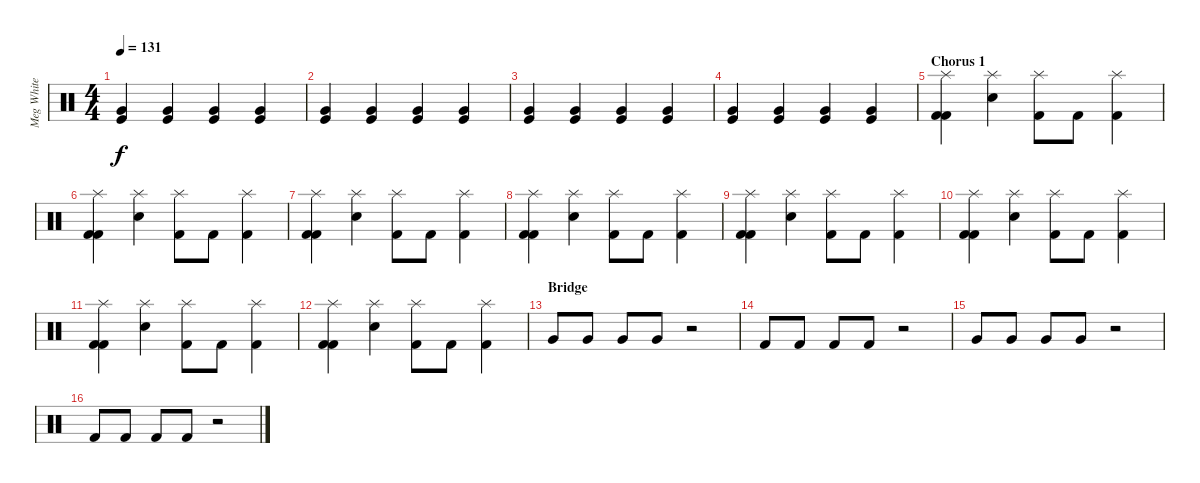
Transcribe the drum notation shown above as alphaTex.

\track ("Meg White" "Meg White") {instrument percussion}
\staff {score}
\articulation defaults
\ts (4 4)
\tempo 131
\clef neutral
\ks c
("Very Low Tom (hit)" "Kick (hit)").4{dy f} ("Very Low Tom (hit)" "Kick (hit)").4 ("Very Low Tom (hit)" "Kick (hit)").4 ("Very Low Tom (hit)" "Kick (hit)").4 |
("Very Low Tom (hit)" "Kick (hit)").4 ("Very Low Tom (hit)" "Kick (hit)").4 ("Very Low Tom (hit)" "Kick (hit)").4 ("Very Low Tom (hit)" "Kick (hit)").4 |
("Very Low Tom (hit)" "Kick (hit)").4 ("Very Low Tom (hit)" "Kick (hit)").4 ("Very Low Tom (hit)" "Kick (hit)").4 ("Very Low Tom (hit)" "Kick (hit)").4 |
("Very Low Tom (hit)" "Kick (hit)").4 ("Very Low Tom (hit)" "Kick (hit)").4 ("Very Low Tom (hit)" "Kick (hit)").4 ("Very Low Tom (hit)" "Kick (hit)").4 |
\section ("" "Chorus 1")
("Splash (hit)" "Kick (hit) 2" "Kick (hit) 2").4 ("Splash (hit)" "Snare (hit) 2").4 ("Splash (hit)" "Kick (hit) 2").8 "Kick (hit) 2".8 ("Splash (hit)" "Kick (hit) 2").4 |
("Splash (hit)" "Kick (hit) 2" "Kick (hit) 2").4 ("Splash (hit)" "Snare (hit) 2").4 ("Splash (hit)" "Kick (hit) 2").8 "Kick (hit) 2".8 ("Splash (hit)" "Kick (hit) 2").4 |
("Splash (hit)" "Kick (hit) 2" "Kick (hit) 2").4 ("Splash (hit)" "Snare (hit) 2").4 ("Splash (hit)" "Kick (hit) 2").8 "Kick (hit) 2".8 ("Splash (hit)" "Kick (hit) 2").4 |
("Splash (hit)" "Kick (hit) 2" "Kick (hit) 2").4 ("Splash (hit)" "Snare (hit) 2").4 ("Splash (hit)" "Kick (hit) 2").8 "Kick (hit) 2".8 ("Splash (hit)" "Kick (hit) 2").4 |
("Splash (hit)" "Kick (hit) 2" "Kick (hit) 2").4 ("Splash (hit)" "Snare (hit) 2").4 ("Splash (hit)" "Kick (hit) 2").8 "Kick (hit) 2".8 ("Splash (hit)" "Kick (hit) 2").4 |
("Splash (hit)" "Kick (hit) 2" "Kick (hit) 2").4 ("Splash (hit)" "Snare (hit) 2").4 ("Splash (hit)" "Kick (hit) 2").8 "Kick (hit) 2".8 ("Splash (hit)" "Kick (hit) 2").4 |
("Splash (hit)" "Kick (hit) 2" "Kick (hit) 2").4 ("Splash (hit)" "Snare (hit) 2").4 ("Splash (hit)" "Kick (hit) 2").8 "Kick (hit) 2".8 ("Splash (hit)" "Kick (hit) 2").4 |
("Splash (hit)" "Kick (hit) 2" "Kick (hit) 2").4 ("Splash (hit)" "Snare (hit) 2").4 ("Splash (hit)" "Kick (hit) 2").8 "Kick (hit) 2".8 ("Splash (hit)" "Kick (hit) 2").4 |
\section ("" "Bridge")
"Very Low Tom (hit)".8 "Very Low Tom (hit)".8 "Very Low Tom (hit)".8 "Very Low Tom (hit)".8 r.2 |
"Kick (hit) 2".8 "Kick (hit) 2".8 "Kick (hit) 2".8 "Kick (hit) 2".8 r.2 |
"Very Low Tom (hit)".8 "Very Low Tom (hit)".8 "Very Low Tom (hit)".8 "Very Low Tom (hit)".8 r.2 |
"Kick (hit) 2".8 "Kick (hit) 2".8 "Kick (hit) 2".8 "Kick (hit) 2".8 r.2
